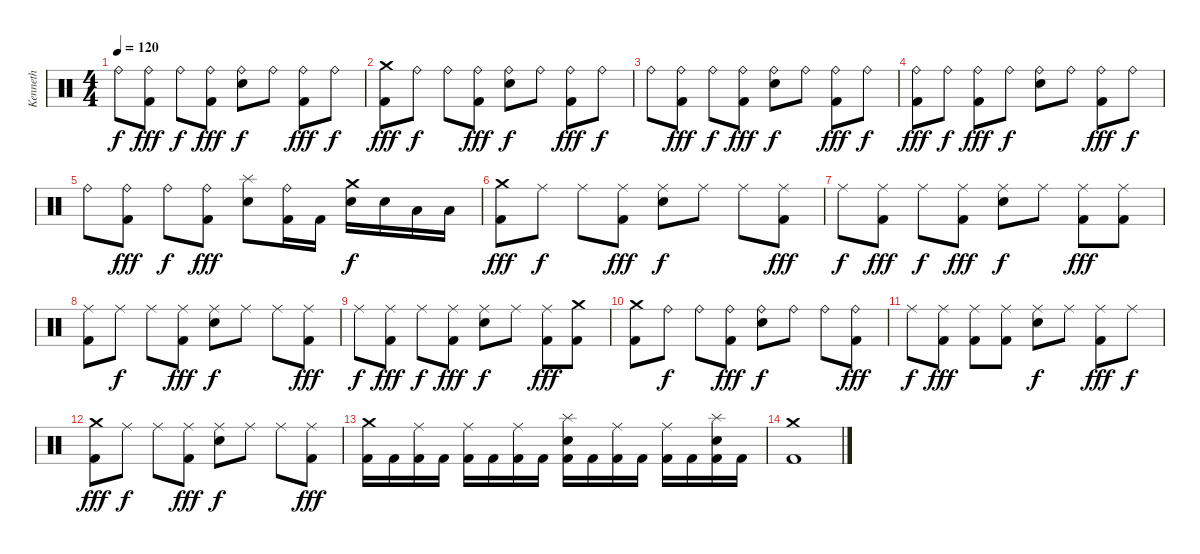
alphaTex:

\track ("Kenneth" "Kenneth") {instrument percussion}
\staff {score}
\articulation defaults
\ts (4 4)
\tempo 120
\clef neutral
\ks c "Ride (bell)".8{dy f}
("Ride (bell)" "Kick (hit) 2").8{dy fff} "Ride (bell)".8{dy f} ("Ride (bell)" "Kick (hit) 2").8{dy fff} ("Ride (bell)" "Snare (hit) 2").8{dy f} "Ride (bell)".8 ("Ride (bell)" "Kick (hit) 2").8{dy fff} "Ride (bell)".8{dy f} |
("Crash medium (hit)" "Kick (hit) 2").8{dy fff} "Ride (bell)".8{dy f} "Ride (bell)".8 ("Ride (bell)" "Kick (hit) 2").8{dy fff} ("Ride (bell)" "Snare (hit) 2").8{dy f} "Ride (bell)".8 ("Ride (bell)" "Kick (hit) 2").8{dy fff} "Ride (bell)".8{dy f} |
"Ride (bell)".8 ("Ride (bell)" "Kick (hit) 2").8{dy fff} "Ride (bell)".8{dy f} ("Ride (bell)" "Kick (hit) 2").8{dy fff} ("Ride (bell)" "Snare (hit) 2").8{dy f} "Ride (bell)".8 ("Ride (bell)" "Kick (hit) 2").8{dy fff} "Ride (bell)".8{dy f} |
("Ride (bell)" "Kick (hit) 2").8{dy fff} "Ride (bell)".8{dy f} ("Ride (bell)" "Kick (hit) 2").8{dy fff} "Ride (bell)".8{dy f} ("Ride (bell)" "Snare (hit) 2").8 "Ride (bell)".8 ("Ride (bell)" "Kick (hit) 2").8{dy fff} "Ride (bell)".8{dy f} |
"Ride (bell)".8 ("Ride (bell)" "Kick (hit) 2").8{dy fff} "Ride (bell)".8{dy f} ("Ride (bell)" "Kick (hit) 2").8{dy fff} ("Splash (hit)" "Snare (hit) 2").8 ("Ride (bell)" "Kick (hit) 2").16 "Kick (hit) 2".16 ("Crash medium (hit)" "Snare (hit) 2").16{dy f} "Snare (hit) 2".16 "Low Tom (hit)".16 "Low Tom (hit)".16 |
("Crash medium (hit)" "Kick (hit) 2").8{dy fff} "Ride (middle)".8{dy f} "Ride (middle)".8 ("Ride (middle)" "Kick (hit) 2").8{dy fff} ("Ride (middle)" "Snare (hit) 2").8{dy f} "Ride (middle)".8 "Ride (middle)".8 ("Ride (middle)" "Kick (hit) 2").8{dy fff} |
"Ride (middle)".8{dy f} ("Ride (middle)" "Kick (hit) 2").8{dy fff} "Ride (middle)".8{dy f} ("Ride (middle)" "Kick (hit) 2").8{dy fff} ("Ride (middle)" "Snare (hit) 2").8{dy f} "Ride (middle)".8 ("Ride (middle)" "Kick (hit) 2").8{dy fff} ("Ride (middle)" "Kick (hit) 2").8 |
("Ride (middle)" "Kick (hit) 2").8 "Ride (middle)".8{dy f} "Ride (middle)".8 ("Ride (middle)" "Kick (hit) 2").8{dy fff} ("Ride (middle)" "Snare (hit) 2").8{dy f} "Ride (middle)".8 "Ride (middle)".8 ("Ride (middle)" "Kick (hit) 2").8{dy fff} |
"Ride (middle)".8{dy f} ("Ride (middle)" "Kick (hit) 2").8{dy fff} "Ride (middle)".8{dy f} ("Ride (middle)" "Kick (hit) 2").8{dy fff} ("Ride (middle)" "Snare (hit) 2").8{dy f} "Ride (middle)".8 ("Ride (middle)" "Kick (hit) 2").8{dy fff} ("Crash medium (hit)" "Kick (hit) 2").8 |
("Crash medium (hit)" "Kick (hit) 2").8 "Ride (bell)".8{dy f} "Ride (bell)".8 ("Ride (bell)" "Kick (hit) 2").8{dy fff} ("Ride (bell)" "Snare (hit) 2").8{dy f} "Ride (bell)".8 "Ride (bell)".8 ("Ride (bell)" "Kick (hit) 2").8{dy fff} |
"Ride (middle)".8{dy f} ("Ride (middle)" "Kick (hit) 2").8{dy fff} ("Ride (middle)" "Kick (hit) 2").8 ("Ride (middle)" "Kick (hit) 2").8 ("Ride (middle)" "Snare (hit) 2").8{dy f} "Ride (middle)".8 ("Ride (middle)" "Kick (hit) 2").8{dy fff} "Ride (middle)".8{dy f} |
("Crash medium (hit)" "Kick (hit) 2").8{dy fff} "Ride (middle)".8{dy f} "Ride (middle)".8 ("Ride (middle)" "Kick (hit) 2").8{dy fff} ("Ride (middle)" "Snare (hit) 2").8{dy f} "Ride (middle)".8 "Ride (middle)".8 ("Ride (middle)" "Kick (hit) 2").8{dy fff} |
("Crash medium (hit)" "Kick (hit) 2").16 "Kick (hit) 2".16 ("Ride (middle)" "Kick (hit) 2").16 "Kick (hit) 2".16 ("Ride (middle)" "Kick (hit) 2").16 "Kick (hit) 2".16 ("Ride (middle)" "Kick (hit) 2").16 "Kick (hit) 2".16 ("Splash (hit)" "Snare (hit) 2" "Kick (hit) 2").16 "Kick (hit) 2".16 ("Ride (middle)" "Kick (hit) 2").16 "Kick (hit) 2".16 ("Ride (middle)" "Kick (hit) 2").16 "Kick (hit) 2".16 ("Splash (hit)" "Snare (hit) 2" "Kick (hit) 2").16 "Kick (hit) 2".16 |
("Crash medium (hit)" "Kick (hit) 2").1
